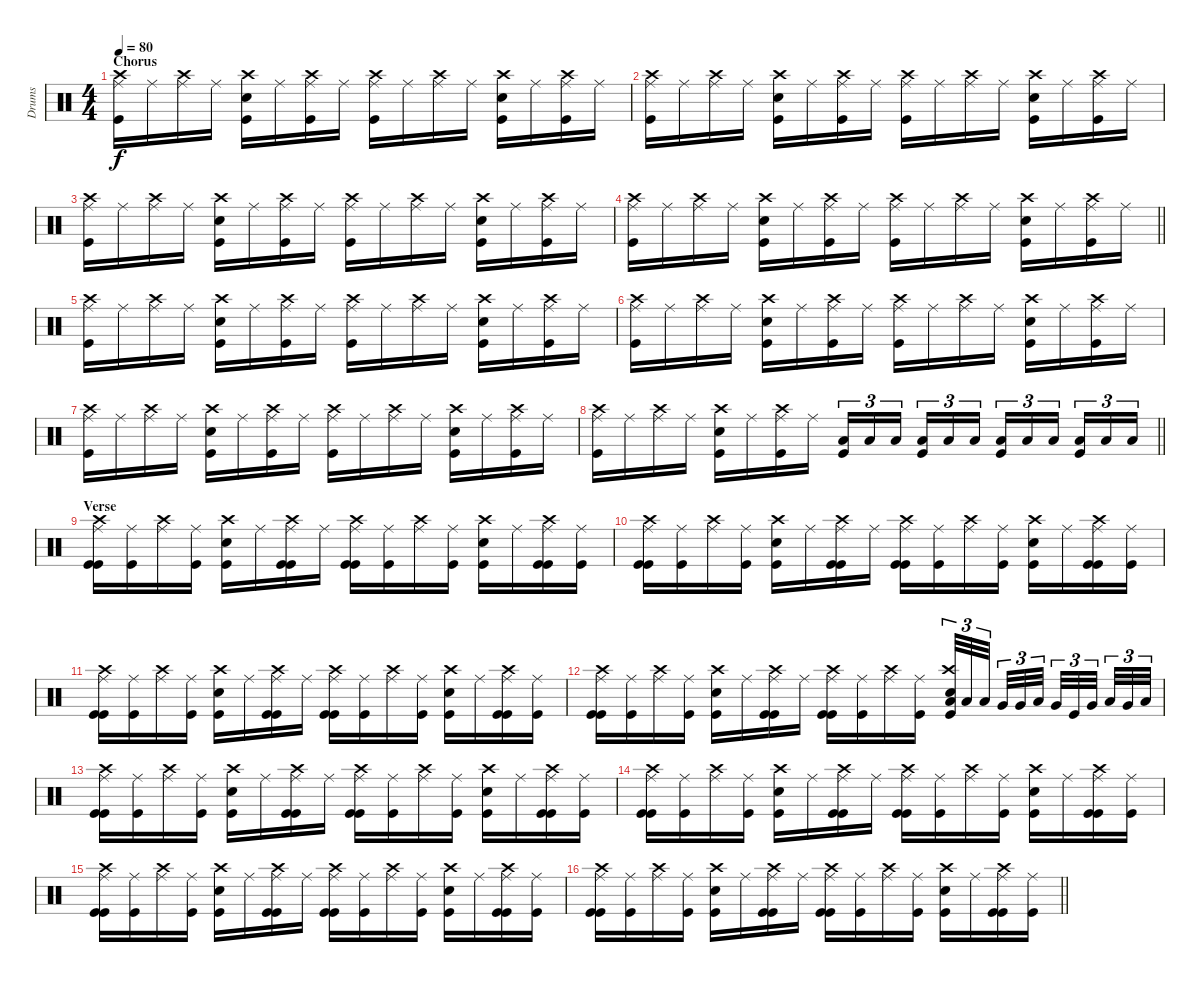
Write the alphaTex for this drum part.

\track ("Drums" "Drums") {instrument percussion}
\staff {score}
\articulation defaults
\ts (4 4)
\section ("" "Chorus")
\tempo 80
\clef neutral
\ks c
("Kick (hit)" "Ride (middle)" "Crash high (hit)").16{dy f} "Ride (middle)".16 ("Ride (middle)" "Crash high (hit)").16 "Ride (middle)".16 ("Kick (hit)" "Crash high (hit)" "Snare (hit) 2").16 "Ride (middle)".16 ("Kick (hit)" "Ride (middle)" "Crash high (hit)").16 "Ride (middle)".16 ("Kick (hit)" "Ride (middle)" "Crash high (hit)").16 "Ride (middle)".16 ("Ride (middle)" "Crash high (hit)").16 "Ride (middle)".16 ("Kick (hit)" "Crash high (hit)" "Snare (hit) 2").16 "Ride (middle)".16 ("Kick (hit)" "Ride (middle)" "Crash high (hit)").16 "Ride (middle)".16 |
("Kick (hit)" "Ride (middle)" "Crash high (hit)").16 "Ride (middle)".16 ("Ride (middle)" "Crash high (hit)").16 "Ride (middle)".16 ("Kick (hit)" "Crash high (hit)" "Snare (hit) 2").16 "Ride (middle)".16 ("Kick (hit)" "Ride (middle)" "Crash high (hit)").16 "Ride (middle)".16 ("Kick (hit)" "Ride (middle)" "Crash high (hit)").16 "Ride (middle)".16 ("Ride (middle)" "Crash high (hit)").16 "Ride (middle)".16 ("Kick (hit)" "Crash high (hit)" "Snare (hit) 2").16 "Ride (middle)".16 ("Kick (hit)" "Ride (middle)" "Crash high (hit)").16 "Ride (middle)".16 |
("Kick (hit)" "Ride (middle)" "Crash high (hit)").16 "Ride (middle)".16 ("Ride (middle)" "Crash high (hit)").16 "Ride (middle)".16 ("Kick (hit)" "Crash high (hit)" "Snare (hit) 2").16 "Ride (middle)".16 ("Kick (hit)" "Ride (middle)" "Crash high (hit)").16 "Ride (middle)".16 ("Kick (hit)" "Ride (middle)" "Crash high (hit)").16 "Ride (middle)".16 ("Ride (middle)" "Crash high (hit)").16 "Ride (middle)".16 ("Kick (hit)" "Crash high (hit)" "Snare (hit) 2").16 "Ride (middle)".16 ("Kick (hit)" "Ride (middle)" "Crash high (hit)").16 "Ride (middle)".16 |
\barLineRight lightlight
("Kick (hit)" "Ride (middle)" "Crash high (hit)").16 "Ride (middle)".16 ("Ride (middle)" "Crash high (hit)").16 "Ride (middle)".16 ("Kick (hit)" "Crash high (hit)" "Snare (hit) 2").16 "Ride (middle)".16 ("Kick (hit)" "Ride (middle)" "Crash high (hit)").16 "Ride (middle)".16 ("Kick (hit)" "Ride (middle)" "Crash high (hit)").16 "Ride (middle)".16 ("Ride (middle)" "Crash high (hit)").16 "Ride (middle)".16 ("Kick (hit)" "Crash high (hit)" "Snare (hit) 2").16 "Ride (middle)".16 ("Kick (hit)" "Ride (middle)" "Crash high (hit)").16 "Ride (middle)".16 |
\section ("" "")
("Kick (hit)" "Ride (middle)" "Crash high (hit)").16 "Ride (middle)".16 ("Ride (middle)" "Crash high (hit)").16 "Ride (middle)".16 ("Kick (hit)" "Crash high (hit)" "Snare (hit) 2").16 "Ride (middle)".16 ("Kick (hit)" "Ride (middle)" "Crash high (hit)").16 "Ride (middle)".16 ("Kick (hit)" "Ride (middle)" "Crash high (hit)").16 "Ride (middle)".16 ("Ride (middle)" "Crash high (hit)").16 "Ride (middle)".16 ("Kick (hit)" "Crash high (hit)" "Snare (hit) 2").16 "Ride (middle)".16 ("Kick (hit)" "Ride (middle)" "Crash high (hit)").16 "Ride (middle)".16 |
("Kick (hit)" "Ride (middle)" "Crash high (hit)").16 "Ride (middle)".16 ("Ride (middle)" "Crash high (hit)").16 "Ride (middle)".16 ("Kick (hit)" "Crash high (hit)" "Snare (hit) 2").16 "Ride (middle)".16 ("Kick (hit)" "Ride (middle)" "Crash high (hit)").16 "Ride (middle)".16 ("Kick (hit)" "Ride (middle)" "Crash high (hit)").16 "Ride (middle)".16 ("Ride (middle)" "Crash high (hit)").16 "Ride (middle)".16 ("Kick (hit)" "Crash high (hit)" "Snare (hit) 2").16 "Ride (middle)".16 ("Kick (hit)" "Ride (middle)" "Crash high (hit)").16 "Ride (middle)".16 |
("Kick (hit)" "Ride (middle)" "Crash high (hit)").16 "Ride (middle)".16 ("Ride (middle)" "Crash high (hit)").16 "Ride (middle)".16 ("Kick (hit)" "Crash high (hit)" "Snare (hit) 2").16 "Ride (middle)".16 ("Kick (hit)" "Ride (middle)" "Crash high (hit)").16 "Ride (middle)".16 ("Kick (hit)" "Ride (middle)" "Crash high (hit)").16 "Ride (middle)".16 ("Ride (middle)" "Crash high (hit)").16 "Ride (middle)".16 ("Kick (hit)" "Crash high (hit)" "Snare (hit) 2").16 "Ride (middle)".16 ("Kick (hit)" "Ride (middle)" "Crash high (hit)").16 "Ride (middle)".16 |
\barLineRight lightlight
("Kick (hit)" "Ride (middle)" "Crash high (hit)").16 "Ride (middle)".16 ("Ride (middle)" "Crash high (hit)").16 "Ride (middle)".16 ("Kick (hit)" "Crash high (hit)" "Snare (hit) 2").16 "Ride (middle)".16 ("Kick (hit)" "Ride (middle)" "Crash high (hit)").16 "Ride (middle)".16 ("Kick (hit)" "Low Tom (hit)").16{tu (3 2)} "Low Tom (hit)".16{tu (3 2)} "Low Tom (hit)".16{tu (3 2) beam splitsecondary} ("Kick (hit)" "Low Tom (hit)").16{tu (3 2)} "Low Tom (hit)".16{tu (3 2)} "Low Tom (hit)".16{tu (3 2)} ("Kick (hit)" "Low Floor Tom (hit)").16{tu (3 2)} "Low Floor Tom (hit)".16{tu (3 2)} "Low Floor Tom (hit)".16{tu (3 2) beam splitsecondary} ("Kick (hit)" "Low Floor Tom (hit)").16{tu (3 2)} "Low Floor Tom (hit)".16{tu (3 2)} "Low Floor Tom (hit)".16{tu (3 2)} |
\section ("" "Verse")
("Kick (hit)" "Ride (middle)" "Crash high (hit)" "Kick (hit)").16 ("Ride (middle)" "Kick (hit)").16 ("Ride (middle)" "Crash high (hit)").16 ("Ride (middle)" "Kick (hit)").16 ("Kick (hit)" "Crash high (hit)" "Snare (hit) 2").16 "Ride (middle)".16 ("Kick (hit)" "Ride (middle)" "Crash high (hit)" "Kick (hit)").16 "Ride (middle)".16 ("Kick (hit)" "Ride (middle)" "Crash high (hit)" "Kick (hit)").16 ("Ride (middle)" "Kick (hit)").16 ("Ride (middle)" "Crash high (hit)").16 ("Ride (middle)" "Kick (hit)").16 ("Kick (hit)" "Crash high (hit)" "Snare (hit) 2").16 "Ride (middle)".16 ("Kick (hit)" "Ride (middle)" "Crash high (hit)" "Kick (hit)").16 ("Ride (middle)" "Kick (hit)").16 |
("Kick (hit)" "Ride (middle)" "Crash high (hit)" "Kick (hit)").16 ("Ride (middle)" "Kick (hit)").16 ("Ride (middle)" "Crash high (hit)").16 ("Ride (middle)" "Kick (hit)").16 ("Kick (hit)" "Crash high (hit)" "Snare (hit) 2").16 "Ride (middle)".16 ("Kick (hit)" "Ride (middle)" "Crash high (hit)" "Kick (hit)").16 "Ride (middle)".16 ("Kick (hit)" "Ride (middle)" "Crash high (hit)" "Kick (hit)").16 ("Ride (middle)" "Kick (hit)").16 ("Ride (middle)" "Crash high (hit)").16 ("Ride (middle)" "Kick (hit)").16 ("Kick (hit)" "Crash high (hit)" "Snare (hit) 2").16 "Ride (middle)".16 ("Kick (hit)" "Ride (middle)" "Crash high (hit)" "Kick (hit)").16 ("Ride (middle)" "Kick (hit)").16 |
("Kick (hit)" "Ride (middle)" "Crash high (hit)" "Kick (hit)").16 ("Ride (middle)" "Kick (hit)").16 ("Ride (middle)" "Crash high (hit)").16 ("Ride (middle)" "Kick (hit)").16 ("Kick (hit)" "Crash high (hit)" "Snare (hit) 2").16 "Ride (middle)".16 ("Kick (hit)" "Ride (middle)" "Crash high (hit)" "Kick (hit)").16 "Ride (middle)".16 ("Kick (hit)" "Ride (middle)" "Crash high (hit)" "Kick (hit)").16 ("Ride (middle)" "Kick (hit)").16 ("Ride (middle)" "Crash high (hit)").16 ("Ride (middle)" "Kick (hit)").16 ("Kick (hit)" "Crash high (hit)" "Snare (hit) 2").16 "Ride (middle)".16 ("Kick (hit)" "Ride (middle)" "Crash high (hit)" "Kick (hit)").16 ("Ride (middle)" "Kick (hit)").16 |
("Kick (hit)" "Ride (middle)" "Crash high (hit)" "Kick (hit)").16 ("Ride (middle)" "Kick (hit)").16 ("Ride (middle)" "Crash high (hit)").16 ("Ride (middle)" "Kick (hit)").16 ("Kick (hit)" "Crash high (hit)" "Snare (hit) 2").16 "Ride (middle)".16 ("Kick (hit)" "Ride (middle)" "Crash high (hit)" "Kick (hit)").16 "Ride (middle)".16 ("Kick (hit)" "Ride (middle)" "Crash high (hit)" "Kick (hit)").16 ("Ride (middle)" "Kick (hit)").16 ("Ride (middle)" "Crash high (hit)").16 ("Ride (middle)" "Kick (hit)").16 ("Crash high (hit)" "Snare (hit) 2" "Low Tom (hit)" "Kick (hit)").32{tu (3 2)} "Low Tom (hit)".32{tu (3 2)} "Low Tom (hit)".32{tu (3 2) beam splitsecondary} "Very Low Tom (hit)".32{tu (3 2)} "Very Low Tom (hit)".32{tu (3 2)} "Low Floor Tom (hit)".32{tu (3 2) beam splitsecondary} "Very Low Tom (hit)".32{tu (3 2)} "Kick (hit)".32{tu (3 2)} "Very Low Tom (hit)".32{tu (3 2) beam splitsecondary} "Low Tom (hit)".32{tu (3 2)} "Very Low Tom (hit)".32{tu (3 2)} "Low Floor Tom (hit)".32{tu (3 2)} |
("Kick (hit)" "Ride (middle)" "Crash high (hit)" "Kick (hit)").16 ("Ride (middle)" "Kick (hit)").16 ("Ride (middle)" "Crash high (hit)").16 ("Ride (middle)" "Kick (hit)").16 ("Kick (hit)" "Crash high (hit)" "Snare (hit) 2").16 "Ride (middle)".16 ("Kick (hit)" "Ride (middle)" "Crash high (hit)" "Kick (hit)").16 "Ride (middle)".16 ("Kick (hit)" "Ride (middle)" "Crash high (hit)" "Kick (hit)").16 ("Ride (middle)" "Kick (hit)").16 ("Ride (middle)" "Crash high (hit)").16 ("Ride (middle)" "Kick (hit)").16 ("Kick (hit)" "Crash high (hit)" "Snare (hit) 2").16 "Ride (middle)".16 ("Kick (hit)" "Ride (middle)" "Crash high (hit)" "Kick (hit)").16 ("Ride (middle)" "Kick (hit)").16 |
("Kick (hit)" "Ride (middle)" "Crash high (hit)" "Kick (hit)").16 ("Ride (middle)" "Kick (hit)").16 ("Ride (middle)" "Crash high (hit)").16 ("Ride (middle)" "Kick (hit)").16 ("Kick (hit)" "Crash high (hit)" "Snare (hit) 2").16 "Ride (middle)".16 ("Kick (hit)" "Ride (middle)" "Crash high (hit)" "Kick (hit)").16 "Ride (middle)".16 ("Kick (hit)" "Ride (middle)" "Crash high (hit)" "Kick (hit)").16 ("Ride (middle)" "Kick (hit)").16 ("Ride (middle)" "Crash high (hit)").16 ("Ride (middle)" "Kick (hit)").16 ("Kick (hit)" "Crash high (hit)" "Snare (hit) 2").16 "Ride (middle)".16 ("Kick (hit)" "Ride (middle)" "Crash high (hit)" "Kick (hit)").16 ("Ride (middle)" "Kick (hit)").16 |
("Kick (hit)" "Ride (middle)" "Crash high (hit)" "Kick (hit)").16 ("Ride (middle)" "Kick (hit)").16 ("Ride (middle)" "Crash high (hit)").16 ("Ride (middle)" "Kick (hit)").16 ("Kick (hit)" "Crash high (hit)" "Snare (hit) 2").16 "Ride (middle)".16 ("Kick (hit)" "Ride (middle)" "Crash high (hit)" "Kick (hit)").16 "Ride (middle)".16 ("Kick (hit)" "Ride (middle)" "Crash high (hit)" "Kick (hit)").16 ("Ride (middle)" "Kick (hit)").16 ("Ride (middle)" "Crash high (hit)").16 ("Ride (middle)" "Kick (hit)").16 ("Kick (hit)" "Crash high (hit)" "Snare (hit) 2").16 "Ride (middle)".16 ("Kick (hit)" "Ride (middle)" "Crash high (hit)" "Kick (hit)").16 ("Ride (middle)" "Kick (hit)").16 |
\barLineRight lightlight
("Kick (hit)" "Ride (middle)" "Crash high (hit)" "Kick (hit)").16 ("Ride (middle)" "Kick (hit)").16 ("Ride (middle)" "Crash high (hit)").16 ("Ride (middle)" "Kick (hit)").16 ("Kick (hit)" "Crash high (hit)" "Snare (hit) 2").16 "Ride (middle)".16 ("Kick (hit)" "Ride (middle)" "Crash high (hit)" "Kick (hit)").16 "Ride (middle)".16 ("Kick (hit)" "Ride (middle)" "Crash high (hit)" "Kick (hit)").16 ("Ride (middle)" "Kick (hit)").16 ("Ride (middle)" "Crash high (hit)").16 ("Ride (middle)" "Kick (hit)").16 ("Kick (hit)" "Crash high (hit)" "Snare (hit) 2").16 "Ride (middle)".16 ("Kick (hit)" "Ride (middle)" "Crash high (hit)" "Kick (hit)").16 ("Ride (middle)" "Kick (hit)").16
